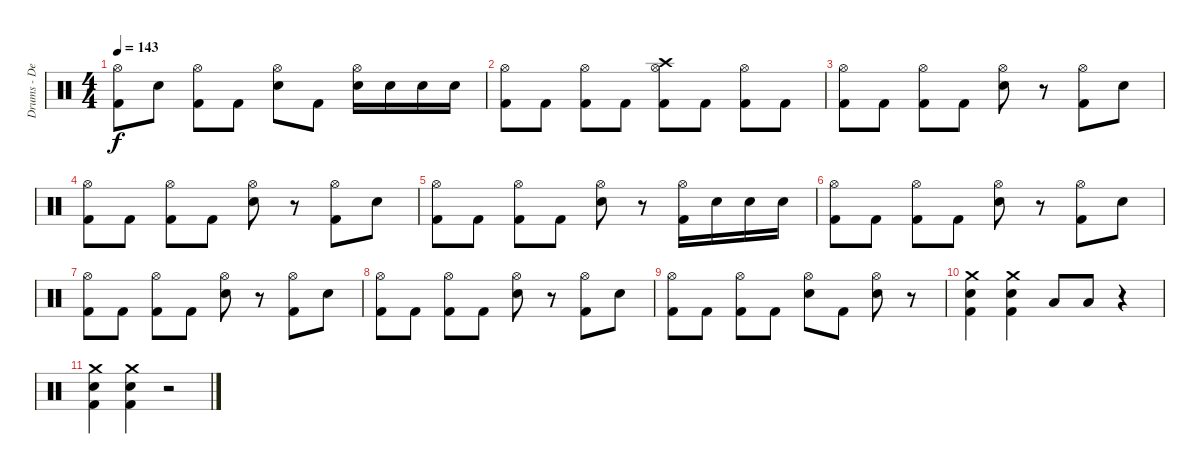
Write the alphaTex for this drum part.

\track ("Drums - Dennis Poschwatta" "Drums - De") {instrument percussion}
\staff {score}
\articulation defaults
\ts (4 4)
\tempo 143
\clef neutral
\ks c
("Hi-Hat (open)" "Kick (hit) 2").8{dy f} "Electric Snare (hit)".8 ("Hi-Hat (open)" "Kick (hit) 2").8 "Kick (hit) 2".8 ("Hi-Hat (open)" "Electric Snare (hit)").8 "Kick (hit) 2".8 ("Hi-Hat (open)" "Electric Snare (hit)").16 "Electric Snare (hit)".16 "Electric Snare (hit)".16 "Electric Snare (hit)".16 |
("Hi-Hat (open)" "Kick (hit) 2").8 "Kick (hit) 2".8 ("Hi-Hat (open)" "Kick (hit) 2").8 "Kick (hit) 2".8 ("Hi-Hat (open)" "Crash high (hit)" "Kick (hit) 2").8 "Kick (hit) 2".8 ("Hi-Hat (open)" "Kick (hit) 2").8 "Kick (hit) 2".8 |
("Hi-Hat (open)" "Kick (hit) 2").8 "Kick (hit) 2".8 ("Hi-Hat (open)" "Kick (hit) 2").8 "Kick (hit) 2".8 ("Hi-Hat (open)" "Electric Snare (hit)").8 r.8 ("Hi-Hat (open)" "Kick (hit) 2").8 "Electric Snare (hit)".8 |
("Hi-Hat (open)" "Kick (hit) 2").8 "Kick (hit) 2".8 ("Hi-Hat (open)" "Kick (hit) 2").8 "Kick (hit) 2".8 ("Hi-Hat (open)" "Electric Snare (hit)").8 r.8 ("Hi-Hat (open)" "Kick (hit) 2").8 "Electric Snare (hit)".8 |
("Hi-Hat (open)" "Kick (hit) 2").8 "Kick (hit) 2".8 ("Hi-Hat (open)" "Kick (hit) 2").8 "Kick (hit) 2".8 ("Hi-Hat (open)" "Electric Snare (hit)").8 r.8 ("Hi-Hat (open)" "Kick (hit) 2").16 "Electric Snare (hit)".16 "Electric Snare (hit)".16 "Electric Snare (hit)".16 |
("Hi-Hat (open)" "Kick (hit) 2").8 "Kick (hit) 2".8 ("Hi-Hat (open)" "Kick (hit) 2").8 "Kick (hit) 2".8 ("Hi-Hat (open)" "Electric Snare (hit)").8 r.8 ("Hi-Hat (open)" "Kick (hit) 2").8 "Electric Snare (hit)".8 |
("Hi-Hat (open)" "Kick (hit) 2").8 "Kick (hit) 2".8 ("Hi-Hat (open)" "Kick (hit) 2").8 "Kick (hit) 2".8 ("Hi-Hat (open)" "Electric Snare (hit)").8 r.8 ("Hi-Hat (open)" "Kick (hit) 2").8 "Electric Snare (hit)".8 |
("Hi-Hat (open)" "Kick (hit) 2").8 "Kick (hit) 2".8 ("Hi-Hat (open)" "Kick (hit) 2").8 "Kick (hit) 2".8 ("Hi-Hat (open)" "Electric Snare (hit)").8 r.8 ("Hi-Hat (open)" "Kick (hit) 2").8 "Electric Snare (hit)".8 |
("Hi-Hat (open)" "Kick (hit) 2").8 "Kick (hit) 2".8 ("Hi-Hat (open)" "Kick (hit) 2").8 "Kick (hit) 2".8 ("Hi-Hat (open)" "Electric Snare (hit)").8 "Kick (hit) 2".8 ("Hi-Hat (open)" "Electric Snare (hit)").8 r.8 |
("Crash medium (hit)" "Electric Snare (hit)" "Kick (hit) 2").4 ("Crash medium (hit)" "Electric Snare (hit)" "Kick (hit) 2").4 "Low Floor Tom (hit)".8 "Low Floor Tom (hit)".8 r.4 |
("Crash medium (hit)" "Electric Snare (hit)" "Kick (hit) 2").4 ("Crash medium (hit)" "Electric Snare (hit)" "Kick (hit) 2").4 r.2
